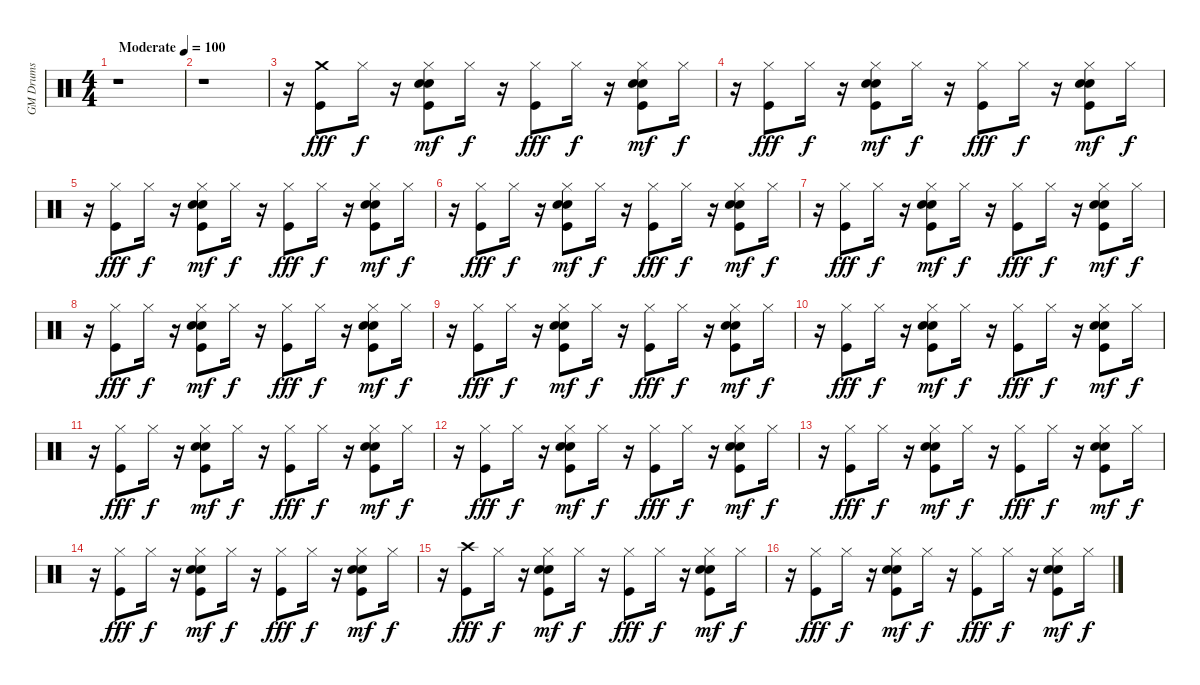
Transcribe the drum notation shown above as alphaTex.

\track ("GM Drums" "GM Drums") {instrument percussion}
\staff {score}
\articulation defaults
\ts (4 4)
\tempo (100 "Moderate")
\clef neutral
\ks c
r.1{dy fff} |
r.1 |
r.16 ("Kick (hit)" "Crash medium (hit)").8 "Hi-Hat (closed)".16{dy f} r.16 ("Kick (hit)" "Snare (hit) 2" "Hand Clap (hit)" "Hi-Hat (closed)").8{dy mf} "Hi-Hat (closed)".16{dy f} r.16 ("Kick (hit)" "Hi-Hat (closed)").8{dy fff} "Hi-Hat (closed)".16{dy f} r.16 ("Kick (hit)" "Snare (hit) 2" "Hand Clap (hit)" "Hi-Hat (closed)").8{dy mf} "Hi-Hat (closed)".16{dy f} |
r.16 ("Kick (hit)" "Hi-Hat (closed)").8{dy fff} "Hi-Hat (closed)".16{dy f} r.16 ("Kick (hit)" "Snare (hit) 2" "Hand Clap (hit)" "Hi-Hat (closed)").8{dy mf} "Hi-Hat (closed)".16{dy f} r.16 ("Kick (hit)" "Hi-Hat (closed)").8{dy fff} "Hi-Hat (closed)".16{dy f} r.16 ("Kick (hit)" "Snare (hit) 2" "Hand Clap (hit)" "Hi-Hat (closed)").8{dy mf} "Hi-Hat (closed)".16{dy f} |
r.16 ("Kick (hit)" "Hi-Hat (closed)").8{dy fff} "Hi-Hat (closed)".16{dy f} r.16 ("Kick (hit)" "Snare (hit) 2" "Hand Clap (hit)" "Hi-Hat (closed)").8{dy mf} "Hi-Hat (closed)".16{dy f} r.16 ("Kick (hit)" "Hi-Hat (closed)").8{dy fff} "Hi-Hat (closed)".16{dy f} r.16 ("Kick (hit)" "Snare (hit) 2" "Hand Clap (hit)" "Hi-Hat (closed)").8{dy mf} "Hi-Hat (closed)".16{dy f} |
r.16 ("Kick (hit)" "Hi-Hat (closed)").8{dy fff} "Hi-Hat (closed)".16{dy f} r.16 ("Kick (hit)" "Snare (hit) 2" "Hand Clap (hit)" "Hi-Hat (closed)").8{dy mf} "Hi-Hat (closed)".16{dy f} r.16 ("Kick (hit)" "Hi-Hat (closed)").8{dy fff} "Hi-Hat (closed)".16{dy f} r.16 ("Kick (hit)" "Snare (hit) 2" "Hand Clap (hit)" "Hi-Hat (closed)").8{dy mf} "Hi-Hat (closed)".16{dy f} |
r.16 ("Kick (hit)" "Hi-Hat (closed)").8{dy fff} "Hi-Hat (closed)".16{dy f} r.16 ("Kick (hit)" "Snare (hit) 2" "Hand Clap (hit)" "Hi-Hat (closed)").8{dy mf} "Hi-Hat (closed)".16{dy f} r.16 ("Kick (hit)" "Hi-Hat (closed)").8{dy fff} "Hi-Hat (closed)".16{dy f} r.16 ("Kick (hit)" "Snare (hit) 2" "Hand Clap (hit)" "Hi-Hat (closed)").8{dy mf} "Hi-Hat (closed)".16{dy f} |
r.16 ("Kick (hit)" "Hi-Hat (closed)").8{dy fff} "Hi-Hat (closed)".16{dy f} r.16 ("Kick (hit)" "Snare (hit) 2" "Hand Clap (hit)" "Hi-Hat (closed)").8{dy mf} "Hi-Hat (closed)".16{dy f} r.16 ("Kick (hit)" "Hi-Hat (closed)").8{dy fff} "Hi-Hat (closed)".16{dy f} r.16 ("Kick (hit)" "Snare (hit) 2" "Hand Clap (hit)" "Hi-Hat (closed)").8{dy mf} "Hi-Hat (closed)".16{dy f} |
r.16 ("Kick (hit)" "Hi-Hat (closed)").8{dy fff} "Hi-Hat (closed)".16{dy f} r.16 ("Kick (hit)" "Snare (hit) 2" "Hand Clap (hit)" "Hi-Hat (closed)").8{dy mf} "Hi-Hat (closed)".16{dy f} r.16 ("Kick (hit)" "Hi-Hat (closed)").8{dy fff} "Hi-Hat (closed)".16{dy f} r.16 ("Kick (hit)" "Snare (hit) 2" "Hand Clap (hit)" "Hi-Hat (closed)").8{dy mf} "Hi-Hat (closed)".16{dy f} |
r.16 ("Kick (hit)" "Hi-Hat (closed)").8{dy fff} "Hi-Hat (closed)".16{dy f} r.16 ("Kick (hit)" "Snare (hit) 2" "Hand Clap (hit)" "Hi-Hat (closed)").8{dy mf} "Hi-Hat (closed)".16{dy f} r.16 ("Kick (hit)" "Hi-Hat (closed)").8{dy fff} "Hi-Hat (closed)".16{dy f} r.16 ("Kick (hit)" "Snare (hit) 2" "Hand Clap (hit)" "Hi-Hat (closed)").8{dy mf} "Hi-Hat (closed)".16{dy f} |
r.16 ("Kick (hit)" "Hi-Hat (closed)").8{dy fff} "Hi-Hat (closed)".16{dy f} r.16 ("Kick (hit)" "Snare (hit) 2" "Hand Clap (hit)" "Hi-Hat (closed)").8{dy mf} "Hi-Hat (closed)".16{dy f} r.16 ("Kick (hit)" "Hi-Hat (closed)").8{dy fff} "Hi-Hat (closed)".16{dy f} r.16 ("Kick (hit)" "Snare (hit) 2" "Hand Clap (hit)" "Hi-Hat (closed)").8{dy mf} "Hi-Hat (closed)".16{dy f} |
r.16 ("Kick (hit)" "Hi-Hat (closed)").8{dy fff} "Hi-Hat (closed)".16{dy f} r.16 ("Kick (hit)" "Snare (hit) 2" "Hand Clap (hit)" "Hi-Hat (closed)").8{dy mf} "Hi-Hat (closed)".16{dy f} r.16 ("Kick (hit)" "Hi-Hat (closed)").8{dy fff} "Hi-Hat (closed)".16{dy f} r.16 ("Kick (hit)" "Snare (hit) 2" "Hand Clap (hit)" "Hi-Hat (closed)").8{dy mf} "Hi-Hat (closed)".16{dy f} |
r.16 ("Kick (hit)" "Hi-Hat (closed)").8{dy fff} "Hi-Hat (closed)".16{dy f} r.16 ("Kick (hit)" "Snare (hit) 2" "Hand Clap (hit)" "Hi-Hat (closed)").8{dy mf} "Hi-Hat (closed)".16{dy f} r.16 ("Kick (hit)" "Hi-Hat (closed)").8{dy fff} "Hi-Hat (closed)".16{dy f} r.16 ("Kick (hit)" "Snare (hit) 2" "Hand Clap (hit)" "Hi-Hat (closed)").8{dy mf} "Hi-Hat (closed)".16{dy f} |
r.16 ("Kick (hit)" "Hi-Hat (closed)").8{dy fff} "Hi-Hat (closed)".16{dy f} r.16 ("Kick (hit)" "Snare (hit) 2" "Hand Clap (hit)" "Hi-Hat (closed)").8{dy mf} "Hi-Hat (closed)".16{dy f} r.16 ("Kick (hit)" "Hi-Hat (closed)").8{dy fff} "Hi-Hat (closed)".16{dy f} r.16 ("Kick (hit)" "Snare (hit) 2" "Hand Clap (hit)" "Hi-Hat (closed)").8{dy mf} "Hi-Hat (closed)".16{dy f} |
r.16 ("Kick (hit)" "Crash high (hit)").8{dy fff} "Hi-Hat (closed)".16{dy f} r.16 ("Kick (hit)" "Snare (hit) 2" "Hand Clap (hit)" "Hi-Hat (closed)").8{dy mf} "Hi-Hat (closed)".16{dy f} r.16 ("Kick (hit)" "Hi-Hat (closed)").8{dy fff} "Hi-Hat (closed)".16{dy f} r.16 ("Kick (hit)" "Snare (hit) 2" "Hand Clap (hit)" "Hi-Hat (closed)").8{dy mf} "Hi-Hat (closed)".16{dy f} |
r.16 ("Kick (hit)" "Hi-Hat (closed)").8{dy fff} "Hi-Hat (closed)".16{dy f} r.16 ("Kick (hit)" "Snare (hit) 2" "Hand Clap (hit)" "Hi-Hat (closed)").8{dy mf} "Hi-Hat (closed)".16{dy f} r.16 ("Kick (hit)" "Hi-Hat (closed)").8{dy fff} "Hi-Hat (closed)".16{dy f} r.16 ("Kick (hit)" "Snare (hit) 2" "Hand Clap (hit)" "Hi-Hat (closed)").8{dy mf} "Hi-Hat (closed)".16{dy f}
